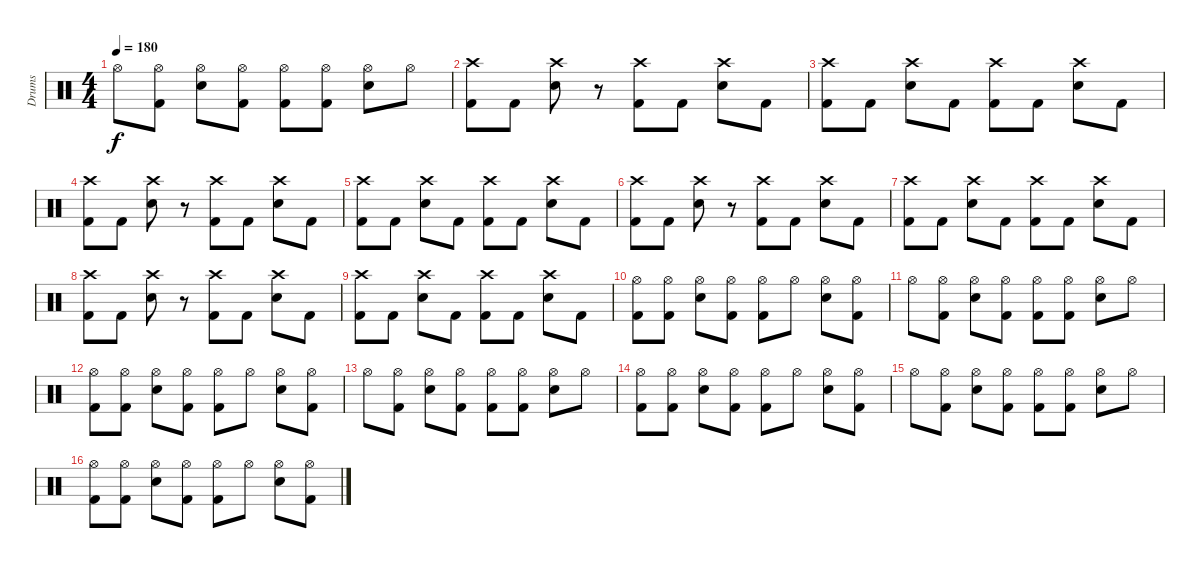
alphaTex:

\track ("Drums" "Drums") {instrument percussion}
\staff {score}
\articulation defaults
\ts (4 4)
\tempo 180
\clef neutral
\ks c "Hi-Hat (open)".8{dy f}
("Hi-Hat (open)" "Kick (hit) 2").8 ("Hi-Hat (open)" "Electric Snare (hit)").8 ("Hi-Hat (open)" "Kick (hit) 2").8 ("Hi-Hat (open)" "Kick (hit) 2").8 ("Hi-Hat (open)" "Kick (hit) 2").8 ("Hi-Hat (open)" "Electric Snare (hit)").8 "Hi-Hat (open)".8 |
("Crash high (hit)" "Kick (hit) 2").8 "Kick (hit) 2".8 ("Crash high (hit)" "Electric Snare (hit)").8 r.8 ("Crash high (hit)" "Kick (hit) 2").8 "Kick (hit) 2".8 ("Crash high (hit)" "Electric Snare (hit)").8 "Kick (hit) 2".8 |
("Crash high (hit)" "Kick (hit) 2").8 "Kick (hit) 2".8 ("Crash high (hit)" "Electric Snare (hit)").8 "Kick (hit) 2".8 ("Crash high (hit)" "Kick (hit) 2").8 "Kick (hit) 2".8 ("Crash high (hit)" "Electric Snare (hit)").8 "Kick (hit) 2".8 |
("Crash high (hit)" "Kick (hit) 2").8 "Kick (hit) 2".8 ("Crash high (hit)" "Electric Snare (hit)").8 r.8 ("Crash high (hit)" "Kick (hit) 2").8 "Kick (hit) 2".8 ("Crash high (hit)" "Electric Snare (hit)").8 "Kick (hit) 2".8 |
("Crash high (hit)" "Kick (hit) 2").8 "Kick (hit) 2".8 ("Crash high (hit)" "Electric Snare (hit)").8 "Kick (hit) 2".8 ("Crash high (hit)" "Kick (hit) 2").8 "Kick (hit) 2".8 ("Crash high (hit)" "Electric Snare (hit)").8 "Kick (hit) 2".8 |
("Crash high (hit)" "Kick (hit) 2").8 "Kick (hit) 2".8 ("Crash high (hit)" "Electric Snare (hit)").8 r.8 ("Crash high (hit)" "Kick (hit) 2").8 "Kick (hit) 2".8 ("Crash high (hit)" "Electric Snare (hit)").8 "Kick (hit) 2".8 |
("Crash high (hit)" "Kick (hit) 2").8 "Kick (hit) 2".8 ("Crash high (hit)" "Electric Snare (hit)").8 "Kick (hit) 2".8 ("Crash high (hit)" "Kick (hit) 2").8 "Kick (hit) 2".8 ("Crash high (hit)" "Electric Snare (hit)").8 "Kick (hit) 2".8 |
("Crash high (hit)" "Kick (hit) 2").8 "Kick (hit) 2".8 ("Crash high (hit)" "Electric Snare (hit)").8 r.8 ("Crash high (hit)" "Kick (hit) 2").8 "Kick (hit) 2".8 ("Crash high (hit)" "Electric Snare (hit)").8 "Kick (hit) 2".8 |
("Crash high (hit)" "Kick (hit) 2").8 "Kick (hit) 2".8 ("Crash high (hit)" "Electric Snare (hit)").8 "Kick (hit) 2".8 ("Crash high (hit)" "Kick (hit) 2").8 "Kick (hit) 2".8 ("Crash high (hit)" "Electric Snare (hit)").8 "Kick (hit) 2".8 |
("Hi-Hat (open)" "Kick (hit) 2").8 ("Hi-Hat (open)" "Kick (hit) 2").8 ("Hi-Hat (open)" "Electric Snare (hit)").8 ("Hi-Hat (open)" "Kick (hit) 2").8 ("Hi-Hat (open)" "Kick (hit) 2").8 "Hi-Hat (open)".8 ("Hi-Hat (open)" "Electric Snare (hit)").8 ("Hi-Hat (open)" "Kick (hit) 2").8 |
"Hi-Hat (open)".8 ("Hi-Hat (open)" "Kick (hit) 2").8 ("Hi-Hat (open)" "Electric Snare (hit)").8 ("Hi-Hat (open)" "Kick (hit) 2").8 ("Hi-Hat (open)" "Kick (hit) 2").8 ("Hi-Hat (open)" "Kick (hit) 2").8 ("Hi-Hat (open)" "Electric Snare (hit)").8 "Hi-Hat (open)".8 |
("Hi-Hat (open)" "Kick (hit) 2").8 ("Hi-Hat (open)" "Kick (hit) 2").8 ("Hi-Hat (open)" "Electric Snare (hit)").8 ("Hi-Hat (open)" "Kick (hit) 2").8 ("Hi-Hat (open)" "Kick (hit) 2").8 "Hi-Hat (open)".8 ("Hi-Hat (open)" "Electric Snare (hit)").8 ("Hi-Hat (open)" "Kick (hit) 2").8 |
"Hi-Hat (open)".8 ("Hi-Hat (open)" "Kick (hit) 2").8 ("Hi-Hat (open)" "Electric Snare (hit)").8 ("Hi-Hat (open)" "Kick (hit) 2").8 ("Hi-Hat (open)" "Kick (hit) 2").8 ("Hi-Hat (open)" "Kick (hit) 2").8 ("Hi-Hat (open)" "Electric Snare (hit)").8 "Hi-Hat (open)".8 |
("Hi-Hat (open)" "Kick (hit) 2").8 ("Hi-Hat (open)" "Kick (hit) 2").8 ("Hi-Hat (open)" "Electric Snare (hit)").8 ("Hi-Hat (open)" "Kick (hit) 2").8 ("Hi-Hat (open)" "Kick (hit) 2").8 "Hi-Hat (open)".8 ("Hi-Hat (open)" "Electric Snare (hit)").8 ("Hi-Hat (open)" "Kick (hit) 2").8 |
"Hi-Hat (open)".8 ("Hi-Hat (open)" "Kick (hit) 2").8 ("Hi-Hat (open)" "Electric Snare (hit)").8 ("Hi-Hat (open)" "Kick (hit) 2").8 ("Hi-Hat (open)" "Kick (hit) 2").8 ("Hi-Hat (open)" "Kick (hit) 2").8 ("Hi-Hat (open)" "Electric Snare (hit)").8 "Hi-Hat (open)".8 |
("Hi-Hat (open)" "Kick (hit) 2").8 ("Hi-Hat (open)" "Kick (hit) 2").8 ("Hi-Hat (open)" "Electric Snare (hit)").8 ("Hi-Hat (open)" "Kick (hit) 2").8 ("Hi-Hat (open)" "Kick (hit) 2").8 "Hi-Hat (open)".8 ("Hi-Hat (open)" "Electric Snare (hit)").8 ("Hi-Hat (open)" "Kick (hit) 2").8
